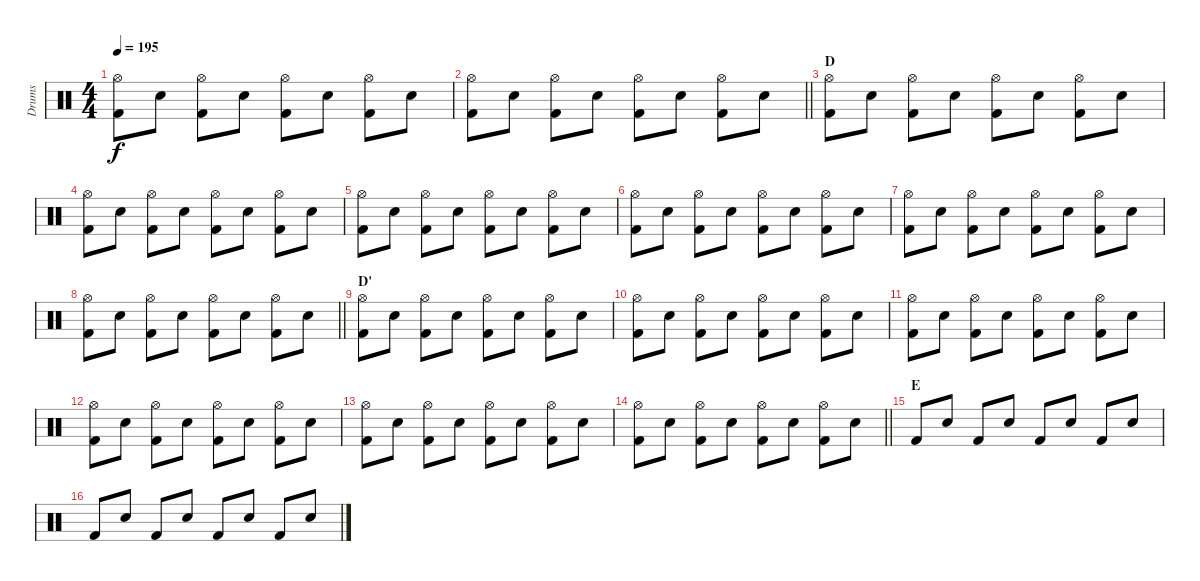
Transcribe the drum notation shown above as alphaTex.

\track ("Drums" "Drums") {instrument percussion}
\staff {score}
\articulation defaults
\ts (4 4)
\tempo 195
\clef neutral
\ks c
("Hi-Hat (open)" "Kick (hit) 2").8{dy f} "Electric Snare (hit)".8 ("Hi-Hat (open)" "Kick (hit) 2").8 "Electric Snare (hit)".8 ("Hi-Hat (open)" "Kick (hit) 2").8 "Electric Snare (hit)".8 ("Hi-Hat (open)" "Kick (hit) 2").8 "Electric Snare (hit)".8 |
\barLineRight lightlight
("Hi-Hat (open)" "Kick (hit) 2").8 "Electric Snare (hit)".8 ("Hi-Hat (open)" "Kick (hit) 2").8 "Electric Snare (hit)".8 ("Hi-Hat (open)" "Kick (hit) 2").8 "Electric Snare (hit)".8 ("Hi-Hat (open)" "Kick (hit) 2").8 "Electric Snare (hit)".8 |
\section ("" "D")
("Hi-Hat (open)" "Kick (hit) 2").8 "Electric Snare (hit)".8 ("Hi-Hat (open)" "Kick (hit) 2").8 "Electric Snare (hit)".8 ("Hi-Hat (open)" "Kick (hit) 2").8 "Electric Snare (hit)".8 ("Hi-Hat (open)" "Kick (hit) 2").8 "Electric Snare (hit)".8 |
("Hi-Hat (open)" "Kick (hit) 2").8 "Electric Snare (hit)".8 ("Hi-Hat (open)" "Kick (hit) 2").8 "Electric Snare (hit)".8 ("Hi-Hat (open)" "Kick (hit) 2").8 "Electric Snare (hit)".8 ("Hi-Hat (open)" "Kick (hit) 2").8 "Electric Snare (hit)".8 |
("Hi-Hat (open)" "Kick (hit) 2").8 "Electric Snare (hit)".8 ("Hi-Hat (open)" "Kick (hit) 2").8 "Electric Snare (hit)".8 ("Hi-Hat (open)" "Kick (hit) 2").8 "Electric Snare (hit)".8 ("Hi-Hat (open)" "Kick (hit) 2").8 "Electric Snare (hit)".8 |
("Hi-Hat (open)" "Kick (hit) 2").8 "Electric Snare (hit)".8 ("Hi-Hat (open)" "Kick (hit) 2").8 "Electric Snare (hit)".8 ("Hi-Hat (open)" "Kick (hit) 2").8 "Electric Snare (hit)".8 ("Hi-Hat (open)" "Kick (hit) 2").8 "Electric Snare (hit)".8 |
("Hi-Hat (open)" "Kick (hit) 2").8 "Electric Snare (hit)".8 ("Hi-Hat (open)" "Kick (hit) 2").8 "Electric Snare (hit)".8 ("Hi-Hat (open)" "Kick (hit) 2").8 "Electric Snare (hit)".8 ("Hi-Hat (open)" "Kick (hit) 2").8 "Electric Snare (hit)".8 |
\barLineRight lightlight
("Hi-Hat (open)" "Kick (hit) 2").8 "Electric Snare (hit)".8 ("Hi-Hat (open)" "Kick (hit) 2").8 "Electric Snare (hit)".8 ("Hi-Hat (open)" "Kick (hit) 2").8 "Electric Snare (hit)".8 ("Hi-Hat (open)" "Kick (hit) 2").8 "Electric Snare (hit)".8 |
\section ("" "D'")
("Hi-Hat (open)" "Kick (hit) 2").8 "Electric Snare (hit)".8 ("Hi-Hat (open)" "Kick (hit) 2").8 "Electric Snare (hit)".8 ("Hi-Hat (open)" "Kick (hit) 2").8 "Electric Snare (hit)".8 ("Hi-Hat (open)" "Kick (hit) 2").8 "Electric Snare (hit)".8 |
("Hi-Hat (open)" "Kick (hit) 2").8 "Electric Snare (hit)".8 ("Hi-Hat (open)" "Kick (hit) 2").8 "Electric Snare (hit)".8 ("Hi-Hat (open)" "Kick (hit) 2").8 "Electric Snare (hit)".8 ("Hi-Hat (open)" "Kick (hit) 2").8 "Electric Snare (hit)".8 |
("Hi-Hat (open)" "Kick (hit) 2").8 "Electric Snare (hit)".8 ("Hi-Hat (open)" "Kick (hit) 2").8 "Electric Snare (hit)".8 ("Hi-Hat (open)" "Kick (hit) 2").8 "Electric Snare (hit)".8 ("Hi-Hat (open)" "Kick (hit) 2").8 "Electric Snare (hit)".8 |
("Hi-Hat (open)" "Kick (hit) 2").8 "Electric Snare (hit)".8 ("Hi-Hat (open)" "Kick (hit) 2").8 "Electric Snare (hit)".8 ("Hi-Hat (open)" "Kick (hit) 2").8 "Electric Snare (hit)".8 ("Hi-Hat (open)" "Kick (hit) 2").8 "Electric Snare (hit)".8 |
("Hi-Hat (open)" "Kick (hit) 2").8 "Electric Snare (hit)".8 ("Hi-Hat (open)" "Kick (hit) 2").8 "Electric Snare (hit)".8 ("Hi-Hat (open)" "Kick (hit) 2").8 "Electric Snare (hit)".8 ("Hi-Hat (open)" "Kick (hit) 2").8 "Electric Snare (hit)".8 |
\barLineRight lightlight
("Hi-Hat (open)" "Kick (hit) 2").8 "Electric Snare (hit)".8 ("Hi-Hat (open)" "Kick (hit) 2").8 "Electric Snare (hit)".8 ("Hi-Hat (open)" "Kick (hit) 2").8 "Electric Snare (hit)".8 ("Hi-Hat (open)" "Kick (hit) 2").8 "Electric Snare (hit)".8 |
\section ("" "E")
"Kick (hit) 2".8 "Electric Snare (hit)".8 "Kick (hit) 2".8 "Electric Snare (hit)".8 "Kick (hit) 2".8 "Electric Snare (hit)".8 "Kick (hit) 2".8 "Electric Snare (hit)".8 |
"Kick (hit) 2".8 "Electric Snare (hit)".8 "Kick (hit) 2".8 "Electric Snare (hit)".8 "Kick (hit) 2".8 "Electric Snare (hit)".8 "Kick (hit) 2".8 "Electric Snare (hit)".8
